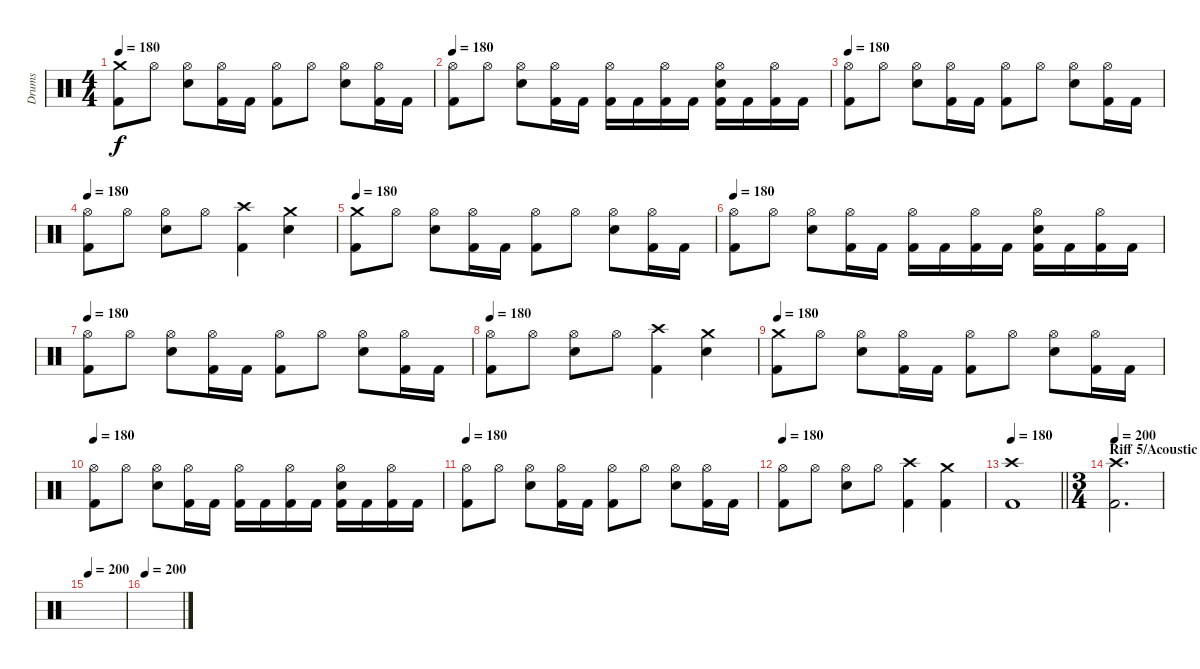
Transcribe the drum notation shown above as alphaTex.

\track ("Drums" "Drums") {instrument percussion}
\staff {score}
\articulation defaults
\ts (4 4)
\tempo 180
\clef neutral
\ks c
("Crash medium (hit)" "Kick (hit) 2").8{dy f} "Hi-Hat (open)".8 ("Hi-Hat (open)" "Electric Snare (hit)").8 ("Hi-Hat (open)" "Kick (hit) 2").16 "Kick (hit) 2".16 ("Hi-Hat (open)" "Kick (hit) 2").8 "Hi-Hat (open)".8 ("Hi-Hat (open)" "Electric Snare (hit)").8 ("Hi-Hat (open)" "Kick (hit) 2").16 "Kick (hit) 2".16 |
\tempo 180
("Hi-Hat (open)" "Kick (hit) 2").8 "Hi-Hat (open)".8 ("Hi-Hat (open)" "Electric Snare (hit)").8 ("Hi-Hat (open)" "Kick (hit) 2").16 "Kick (hit) 2".16 ("Hi-Hat (open)" "Kick (hit) 2").16 "Kick (hit) 2".16 ("Hi-Hat (open)" "Kick (hit) 2").16 "Kick (hit) 2".16 ("Hi-Hat (open)" "Electric Snare (hit)" "Kick (hit) 2").16 "Kick (hit) 2".16 ("Hi-Hat (open)" "Kick (hit) 2").16 "Kick (hit) 2".16 |
\tempo 180
("Hi-Hat (open)" "Kick (hit) 2").8 "Hi-Hat (open)".8 ("Hi-Hat (open)" "Electric Snare (hit)").8 ("Hi-Hat (open)" "Kick (hit) 2").16 "Kick (hit) 2".16 ("Hi-Hat (open)" "Kick (hit) 2").8 "Hi-Hat (open)".8 ("Hi-Hat (open)" "Electric Snare (hit)").8 ("Hi-Hat (open)" "Kick (hit) 2").16 "Kick (hit) 2".16 |
\tempo 180
("Hi-Hat (open)" "Kick (hit) 2").8 "Hi-Hat (open)".8 ("Hi-Hat (open)" "Electric Snare (hit)").8 "Hi-Hat (open)".8 ("Crash high (hit)" "Kick (hit) 2").4 ("Crash medium (hit)" "Electric Snare (hit)").4 |
\tempo 180
("Crash medium (hit)" "Kick (hit) 2").8 "Hi-Hat (open)".8 ("Hi-Hat (open)" "Electric Snare (hit)").8 ("Hi-Hat (open)" "Kick (hit) 2").16 "Kick (hit) 2".16 ("Hi-Hat (open)" "Kick (hit) 2").8 "Hi-Hat (open)".8 ("Hi-Hat (open)" "Electric Snare (hit)").8 ("Hi-Hat (open)" "Kick (hit) 2").16 "Kick (hit) 2".16 |
\tempo 180
("Hi-Hat (open)" "Kick (hit) 2").8 "Hi-Hat (open)".8 ("Hi-Hat (open)" "Electric Snare (hit)").8 ("Hi-Hat (open)" "Kick (hit) 2").16 "Kick (hit) 2".16 ("Hi-Hat (open)" "Kick (hit) 2").16 "Kick (hit) 2".16 ("Hi-Hat (open)" "Kick (hit) 2").16 "Kick (hit) 2".16 ("Hi-Hat (open)" "Electric Snare (hit)" "Kick (hit) 2").16 "Kick (hit) 2".16 ("Hi-Hat (open)" "Kick (hit) 2").16 "Kick (hit) 2".16 |
\tempo 180
("Hi-Hat (open)" "Kick (hit) 2").8 "Hi-Hat (open)".8 ("Hi-Hat (open)" "Electric Snare (hit)").8 ("Hi-Hat (open)" "Kick (hit) 2").16 "Kick (hit) 2".16 ("Hi-Hat (open)" "Kick (hit) 2").8 "Hi-Hat (open)".8 ("Hi-Hat (open)" "Electric Snare (hit)").8 ("Hi-Hat (open)" "Kick (hit) 2").16 "Kick (hit) 2".16 |
\tempo 180
("Hi-Hat (open)" "Kick (hit) 2").8 "Hi-Hat (open)".8 ("Hi-Hat (open)" "Electric Snare (hit)").8 "Hi-Hat (open)".8 ("Crash high (hit)" "Kick (hit) 2").4 ("Crash medium (hit)" "Electric Snare (hit)").4 |
\tempo 180
("Crash medium (hit)" "Kick (hit) 2").8 "Hi-Hat (open)".8 ("Hi-Hat (open)" "Electric Snare (hit)").8 ("Hi-Hat (open)" "Kick (hit) 2").16 "Kick (hit) 2".16 ("Hi-Hat (open)" "Kick (hit) 2").8 "Hi-Hat (open)".8 ("Hi-Hat (open)" "Electric Snare (hit)").8 ("Hi-Hat (open)" "Kick (hit) 2").16 "Kick (hit) 2".16 |
\tempo 180
("Hi-Hat (open)" "Kick (hit) 2").8 "Hi-Hat (open)".8 ("Hi-Hat (open)" "Electric Snare (hit)").8 ("Hi-Hat (open)" "Kick (hit) 2").16 "Kick (hit) 2".16 ("Hi-Hat (open)" "Kick (hit) 2").16 "Kick (hit) 2".16 ("Hi-Hat (open)" "Kick (hit) 2").16 "Kick (hit) 2".16 ("Hi-Hat (open)" "Electric Snare (hit)" "Kick (hit) 2").16 "Kick (hit) 2".16 ("Hi-Hat (open)" "Kick (hit) 2").16 "Kick (hit) 2".16 |
\tempo 180
("Hi-Hat (open)" "Kick (hit) 2").8 "Hi-Hat (open)".8 ("Hi-Hat (open)" "Electric Snare (hit)").8 ("Hi-Hat (open)" "Kick (hit) 2").16 "Kick (hit) 2".16 ("Hi-Hat (open)" "Kick (hit) 2").8 "Hi-Hat (open)".8 ("Hi-Hat (open)" "Electric Snare (hit)").8 ("Hi-Hat (open)" "Kick (hit) 2").16 "Kick (hit) 2".16 |
\tempo 180
("Hi-Hat (open)" "Kick (hit) 2").8 "Hi-Hat (open)".8 ("Hi-Hat (open)" "Electric Snare (hit)").8 "Hi-Hat (open)".8 ("Crash high (hit)" "Kick (hit) 2").4 ("Crash medium (hit)" "Kick (hit) 2").4 |
\tempo 180
\barLineRight lightlight
("Crash high (hit)" "Kick (hit) 2").1 |
\ts (3 4)
\section ("" "Riff 5/Acoustic Middle")
\tempo 200
("Crash high (hit)" "Kick (hit) 2").2{d} |
\tempo 200
|
\tempo 200
